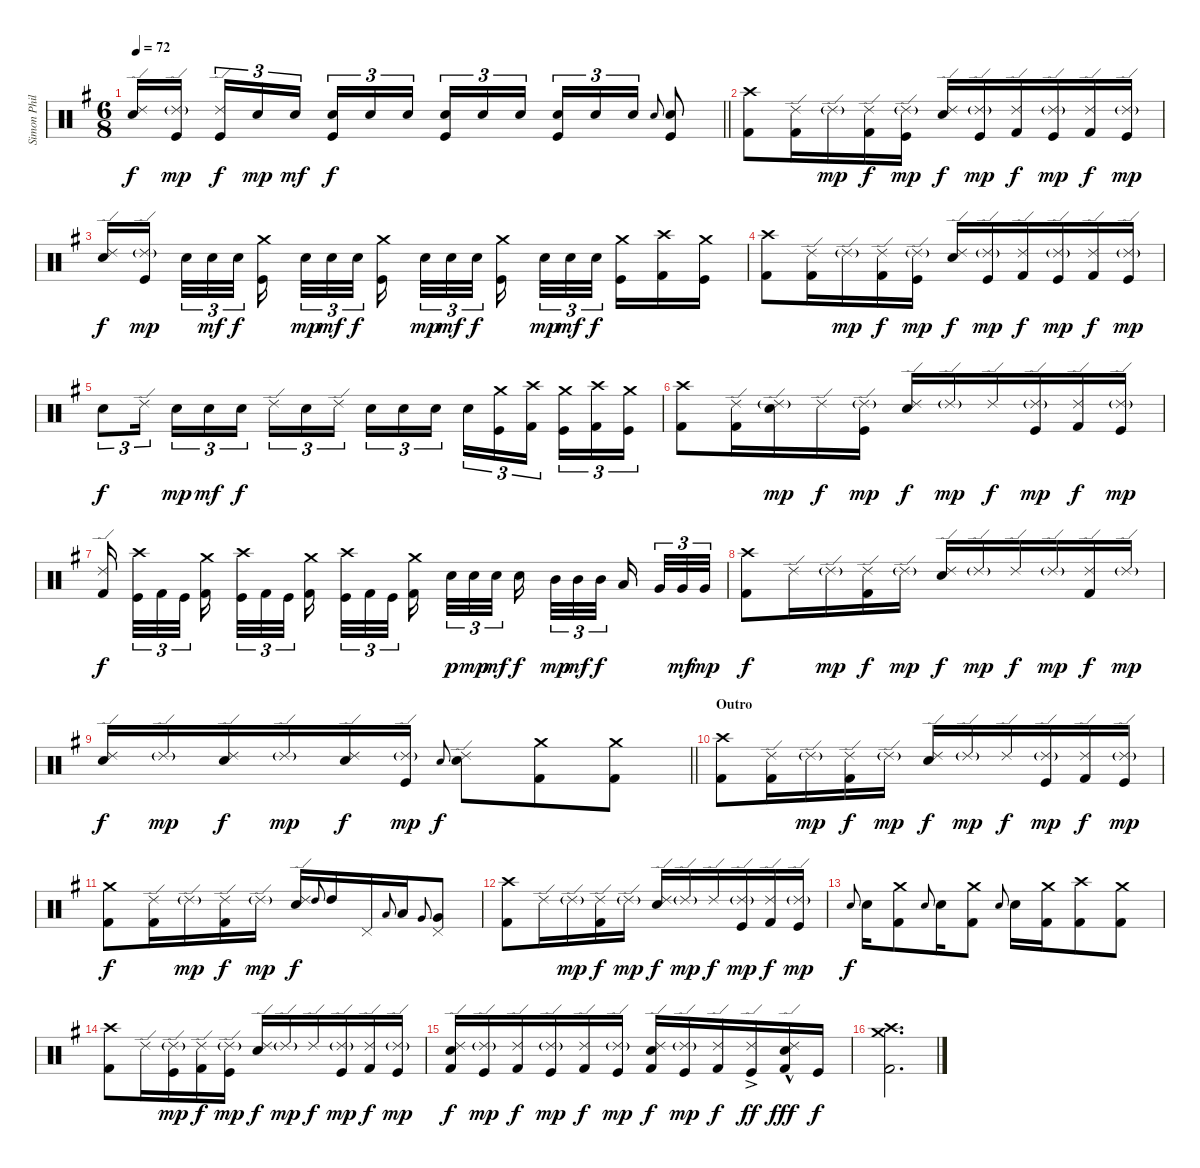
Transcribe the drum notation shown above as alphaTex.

\track ("Simon Phillips" "Simon Phil") {instrument percussion}
\staff {score}
\articulation defaults
\ts (6 8)
\tempo 72
\clef neutral
\barLineRight lightlight
\ks eminor
("Ride (edge) 2" "Electric Snare (hit)").16{dy f} ("Ride (edge) 2"{g} "Kick (hit)").16{dy mp beam splitsecondary} ("Ride (edge) 2" "Kick (hit)").16{tu (3 2) dy f} "Electric Snare (hit)".16{tu (3 2) dy mp} "Electric Snare (hit)".16{tu (3 2) dy mf beam splitsecondary} ("Electric Snare (hit)" "Kick (hit)").16{tu (3 2) dy f} "Electric Snare (hit)".16{tu (3 2)} "Electric Snare (hit)".16{tu (3 2)} ("Electric Snare (hit)" "Kick (hit)").16{tu (3 2)} "Electric Snare (hit)".16{tu (3 2)} "Electric Snare (hit)".16{tu (3 2) beam splitsecondary} ("Electric Snare (hit)" "Kick (hit)").16{tu (3 2)} "Electric Snare (hit)".16{tu (3 2)} "Electric Snare (hit)".16{tu (3 2)} "Electric Snare (hit)".8{gr onbeat} ("Electric Snare (hit)" "Kick (hit)").8 |
\section ("" "")
("Crash high (hit)" "Kick (hit) 2").8 ("Ride (edge) 2" "Kick (hit) 2").16 "Ride (edge) 2"{g}.16{dy mp} ("Ride (edge) 2" "Kick (hit) 2").16{dy f} ("Ride (edge) 2"{g} "Kick (hit)").16{dy mp} ("Ride (edge) 2" "Electric Snare (hit)").16{dy f} ("Ride (edge) 2"{g} "Kick (hit)").16{dy mp} ("Ride (edge) 2" "Kick (hit) 2").16{dy f} ("Ride (edge) 2"{g} "Kick (hit)").16{dy mp} ("Ride (edge) 2" "Kick (hit) 2").16{dy f} ("Ride (edge) 2"{g} "Kick (hit)").16{dy mp} |
("Ride (edge) 2" "Electric Snare (hit)").16{dy f} ("Ride (edge) 2"{g} "Kick (hit)").16{dy mp beam splitsecondary} "Electric Snare (hit)".32{tu (3 2)} "Electric Snare (hit)".32{tu (3 2) dy mf} "Electric Snare (hit)".32{tu (3 2) dy f beam splitsecondary} ("Crash medium (hit)" "Kick (hit)").16{beam splitsecondary} "Electric Snare (hit)".32{tu (3 2) dy mp} "Electric Snare (hit)".32{tu (3 2) dy mf} "Electric Snare (hit)".32{tu (3 2) dy f beam splitsecondary} ("Crash medium (hit)" "Kick (hit)").16 "Electric Snare (hit)".32{tu (3 2) dy mp} "Electric Snare (hit)".32{tu (3 2) dy mf} "Electric Snare (hit)".32{tu (3 2) dy f beam splitsecondary} ("Crash medium (hit)" "Kick (hit)").16{beam splitsecondary} "Electric Snare (hit)".32{tu (3 2) dy mp} "Electric Snare (hit)".32{tu (3 2) dy mf} "Electric Snare (hit)".32{tu (3 2) dy f beam splitsecondary} ("Crash medium (hit)" "Kick (hit)").16 ("Crash high (hit)" "Kick (hit) 2").16 ("Crash medium (hit)" "Kick (hit)").16 |
("Crash high (hit)" "Kick (hit) 2").8 ("Ride (edge) 2" "Kick (hit) 2").16 "Ride (edge) 2"{g}.16{dy mp} ("Ride (edge) 2" "Kick (hit) 2").16{dy f} ("Ride (edge) 2"{g} "Kick (hit)").16{dy mp} ("Ride (edge) 2" "Electric Snare (hit)").16{dy f} ("Ride (edge) 2"{g} "Kick (hit)").16{dy mp} ("Ride (edge) 2" "Kick (hit) 2").16{dy f} ("Ride (edge) 2"{g} "Kick (hit)").16{dy mp} ("Ride (edge) 2" "Kick (hit) 2").16{dy f} ("Ride (edge) 2"{g} "Kick (hit)").16{dy mp} |
"Electric Snare (hit)".8{tu (3 2) dy f} "Ride (edge) 2".16{tu (3 2) beam splitsecondary} "Electric Snare (hit)".16{tu (3 2) dy mp} "Electric Snare (hit)".16{tu (3 2) dy mf} "Electric Snare (hit)".16{tu (3 2) dy f beam splitsecondary} "Ride (edge) 2".16{tu (3 2)} "Electric Snare (hit)".16{tu (3 2)} "Ride (edge) 2".16{tu (3 2)} "Electric Snare (hit)".16{tu (3 2)} "Electric Snare (hit)".16{tu (3 2)} "Electric Snare (hit)".16{tu (3 2) beam splitsecondary} "Electric Snare (hit)".16{tu (3 2)} ("Crash medium (hit)" "Kick (hit)").16{tu (3 2)} ("Crash high (hit)" "Kick (hit) 2").16{tu (3 2) beam splitsecondary} ("Crash medium (hit)" "Kick (hit)").16{tu (3 2)} ("Crash high (hit)" "Kick (hit) 2").16{tu (3 2)} ("Crash medium (hit)" "Kick (hit)").16{tu (3 2)} |
("Crash high (hit)" "Kick (hit) 2").8 ("Ride (edge) 2" "Kick (hit) 2").16 ("Ride (edge) 2"{g} "Electric Snare (hit)").16{dy mp} "Ride (edge) 2".16{dy f} ("Ride (edge) 2"{g} "Kick (hit)").16{dy mp} ("Ride (edge) 2" "Electric Snare (hit)").16{dy f} "Ride (edge) 2"{g}.16{dy mp} "Ride (edge) 2".16{dy f} ("Ride (edge) 2"{g} "Kick (hit)").16{dy mp} ("Ride (edge) 2" "Kick (hit) 2").16{dy f} ("Ride (edge) 2"{g} "Kick (hit)").16{dy mp} |
("Ride (edge) 2" "Kick (hit) 2").16{dy f beam splitsecondary} ("Crash high (hit)" "Kick (hit)").32{tu (3 2)} "Kick (hit) 2".32{tu (3 2)} "Kick (hit)".32{tu (3 2) beam splitsecondary} ("Crash medium (hit)" "Kick (hit) 2").16{beam splitsecondary} ("Crash high (hit)" "Kick (hit)").32{tu (3 2)} "Kick (hit) 2".32{tu (3 2)} "Kick (hit)".32{tu (3 2) beam splitsecondary} ("Crash medium (hit)" "Kick (hit) 2").16{beam splitsecondary} ("Crash high (hit)" "Kick (hit)").32{tu (3 2)} "Kick (hit) 2".32{tu (3 2)} "Kick (hit)".32{tu (3 2)} ("Crash medium (hit)" "Kick (hit) 2").16{beam splitsecondary} "Electric Snare (hit)".32{tu (3 2) dy p} "Electric Snare (hit)".32{tu (3 2) dy mp} "Electric Snare (hit)".32{tu (3 2) dy mf beam splitsecondary} "Electric Snare (hit)".16{dy f beam splitsecondary} "Mid Tom (hit)".32{tu (3 2) dy mp} "Mid Tom (hit)".32{tu (3 2) dy mf} "Mid Tom (hit)".32{tu (3 2) dy f beam splitsecondary} "Low Tom (hit)".16{beam splitsecondary} "Very Low Tom (hit)".32{tu (3 2)} "Very Low Tom (hit)".32{tu (3 2) dy mf} "Very Low Tom (hit)".32{tu (3 2) dy mp} |
("Crash high (hit)" "Kick (hit) 2").8{dy f} "Ride (edge) 2".16 "Ride (edge) 2"{g}.16{dy mp} ("Ride (edge) 2" "Kick (hit) 2").16{dy f} "Ride (edge) 2"{g}.16{dy mp} ("Ride (edge) 2" "Electric Snare (hit)").16{dy f} "Ride (edge) 2"{g}.16{dy mp} "Ride (edge) 2".16{dy f} "Ride (edge) 2"{g}.16{dy mp} ("Ride (edge) 2" "Kick (hit) 2").16{dy f} "Ride (edge) 2"{g}.16{dy mp} |
\barLineRight lightlight
("Ride (edge) 2" "Electric Snare (hit)").16{dy f} "Ride (edge) 2"{g}.16{dy mp} ("Ride (edge) 2" "Electric Snare (hit)").16{dy f} "Ride (edge) 2"{g}.16{dy mp} ("Ride (edge) 2" "Electric Snare (hit)").16{dy f} ("Ride (edge) 2"{g} "Kick (hit)").16{dy mp} "Electric Snare (hit)".8{gr onbeat dy f} ("Ride (edge) 2" "Electric Snare (hit)").8 ("Crash medium (hit)" "Kick (hit) 2").8 ("Crash medium (hit)" "Kick (hit) 2").8 |
\section ("" "Outro")
("Crash high (hit)" "Kick (hit) 2").8 ("Ride (edge) 2" "Kick (hit) 2").16 "Ride (edge) 2"{g}.16{dy mp} ("Ride (edge) 2" "Kick (hit) 2").16{dy f} "Ride (edge) 2"{g}.16{dy mp} ("Ride (edge) 2" "Electric Snare (hit)").16{dy f} "Ride (edge) 2"{g}.16{dy mp} "Ride (edge) 2".16{dy f} ("Ride (edge) 2"{g} "Kick (hit)").16{dy mp} ("Ride (edge) 2" "Kick (hit) 2").16{dy f} ("Ride (edge) 2"{g} "Kick (hit)").16{dy mp} |
("Crash medium (hit)" "Kick (hit) 2").8{dy f} ("Ride (edge) 2" "Kick (hit) 2").16 "Ride (edge) 2"{g}.16{dy mp} ("Ride (edge) 2" "Kick (hit) 2").16{dy f} "Ride (edge) 2"{g}.16{dy mp} ("Ride (edge) 2" "Electric Snare (hit)").16{dy f} "High Tom (hit)".8{gr onbeat} "High Tom (hit)".16 "Pedal Hi-Hat (hit)".16 "Low Tom (hit)".8{gr onbeat} "Low Tom (hit)".16 "Very Low Tom (hit)".8{gr onbeat} ("Pedal Hi-Hat (hit)" "Very Low Tom (hit)").8 |
("Crash high (hit)" "Kick (hit) 2").8 "Ride (edge) 2".16 "Ride (edge) 2"{g}.16{dy mp} ("Ride (edge) 2" "Kick (hit) 2").16{dy f} "Ride (edge) 2"{g}.16{dy mp} ("Ride (edge) 2" "Electric Snare (hit)").16{dy f} "Ride (edge) 2"{g}.16{dy mp} "Ride (edge) 2".16{dy f} ("Ride (edge) 2"{g} "Kick (hit)").16{dy mp} ("Ride (edge) 2" "Kick (hit) 2").16{dy f} ("Ride (edge) 2"{g} "Kick (hit)").16{dy mp} |
"Electric Snare (hit)".8{gr onbeat dy f} "Electric Snare (hit)".16 ("Crash medium (hit)" "Kick (hit) 2").8 "Electric Snare (hit)".8{gr onbeat} "Electric Snare (hit)".16 ("Crash medium (hit)" "Kick (hit) 2").8 "Electric Snare (hit)".8{gr onbeat} "Electric Snare (hit)".16 ("Crash medium (hit)" "Kick (hit) 2").16 ("Crash high (hit)" "Kick (hit) 2").8 ("Crash medium (hit)" "Kick (hit) 2").8 |
("Crash high (hit)" "Kick (hit) 2").8 "Ride (edge) 2".16 ("Ride (edge) 2"{g} "Kick (hit)").16{dy mp} ("Ride (edge) 2" "Kick (hit) 2").16{dy f} ("Ride (edge) 2"{g} "Kick (hit)").16{dy mp} ("Ride (edge) 2" "Electric Snare (hit)").16{dy f} "Ride (edge) 2"{g}.16{dy mp} "Ride (edge) 2".16{dy f} ("Ride (edge) 2"{g} "Kick (hit)").16{dy mp} ("Ride (edge) 2" "Kick (hit) 2").16{dy f} ("Ride (edge) 2"{g} "Kick (hit)").16{dy mp} |
("Ride (edge) 2" "Electric Snare (hit)" "Kick (hit) 2").16{dy f} ("Ride (edge) 2"{g} "Kick (hit)").16{dy mp} ("Ride (edge) 2" "Kick (hit) 2").16{dy f} ("Ride (edge) 2"{g} "Kick (hit)").16{dy mp} ("Ride (edge) 2" "Kick (hit) 2").16{dy f} ("Ride (edge) 2"{g} "Kick (hit)").16{dy mp} ("Ride (edge) 2" "Electric Snare (hit)" "Kick (hit) 2").16{dy f} ("Ride (edge) 2"{g} "Kick (hit)").16{dy mp} ("Ride (edge) 2" "Kick (hit) 2").16{dy f} ("Ride (edge) 2"{ac} "Kick (hit)").16{dy ff} ("Ride (edge) 2"{hac} "Electric Snare (hit)" "Kick (hit) 2").16{dy fff} "Kick (hit)".16{dy f} |
("Crash medium (hit)" "Crash high (hit)" "Kick (hit) 2").2{d}
